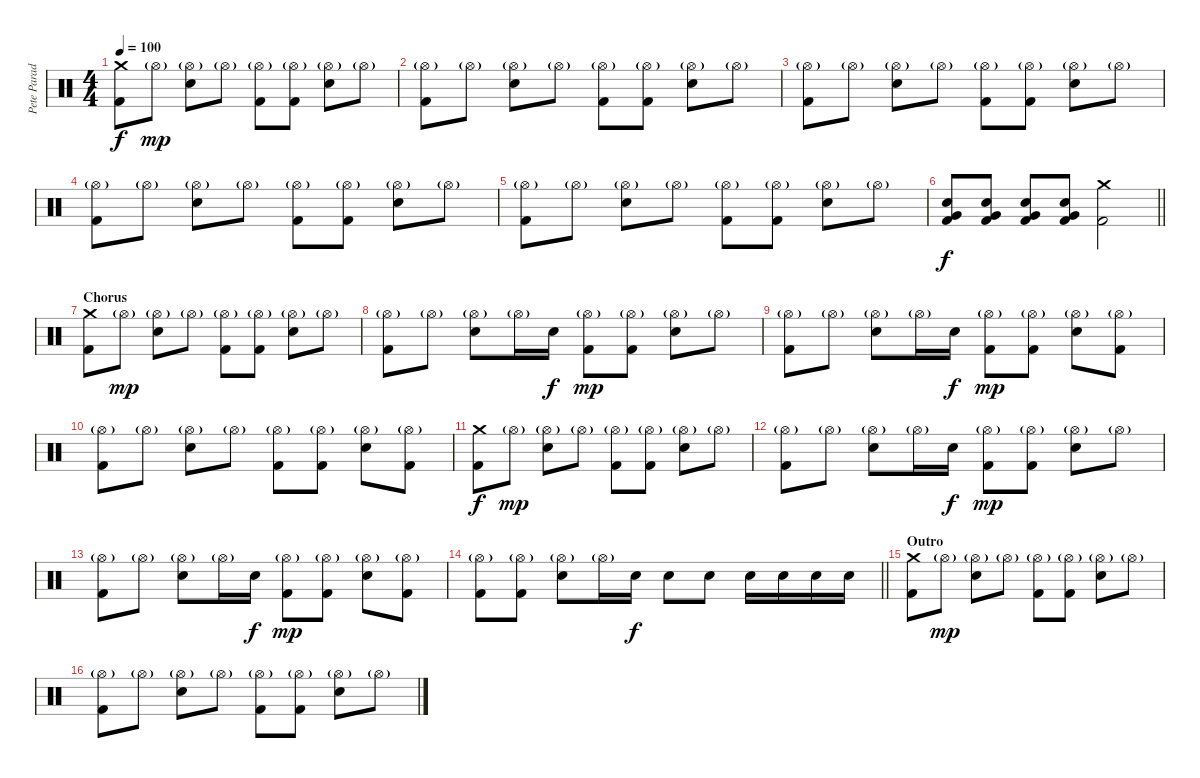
\track ("Pete Parada - Drums" "Pete Parad") {instrument percussion}
\staff {score}
\articulation defaults
\ts (4 4)
\tempo 100
\clef neutral
\ks c
("Crash medium (hit)" "Kick (hit) 2").8{dy f} "Hi-Hat (open)"{g}.8{dy mp} ("Hi-Hat (open)"{g} "Electric Snare (hit)").8 "Hi-Hat (open)"{g}.8 ("Hi-Hat (open)"{g} "Kick (hit) 2").8 ("Hi-Hat (open)"{g} "Kick (hit) 2").8 ("Hi-Hat (open)"{g} "Electric Snare (hit)").8 "Hi-Hat (open)"{g}.8 |
("Hi-Hat (open)"{g} "Kick (hit) 2").8 "Hi-Hat (open)"{g}.8 ("Hi-Hat (open)"{g} "Electric Snare (hit)").8 "Hi-Hat (open)"{g}.8 ("Hi-Hat (open)"{g} "Kick (hit) 2").8 ("Hi-Hat (open)"{g} "Kick (hit) 2").8 ("Hi-Hat (open)"{g} "Electric Snare (hit)").8 "Hi-Hat (open)"{g}.8 |
("Hi-Hat (open)"{g} "Kick (hit) 2").8 "Hi-Hat (open)"{g}.8 ("Hi-Hat (open)"{g} "Electric Snare (hit)").8 "Hi-Hat (open)"{g}.8 ("Hi-Hat (open)"{g} "Kick (hit) 2").8 ("Hi-Hat (open)"{g} "Kick (hit) 2").8 ("Hi-Hat (open)"{g} "Electric Snare (hit)").8 "Hi-Hat (open)"{g}.8 |
("Hi-Hat (open)"{g} "Kick (hit) 2").8 "Hi-Hat (open)"{g}.8 ("Hi-Hat (open)"{g} "Electric Snare (hit)").8 "Hi-Hat (open)"{g}.8 ("Hi-Hat (open)"{g} "Kick (hit) 2").8 ("Hi-Hat (open)"{g} "Kick (hit) 2").8 ("Hi-Hat (open)"{g} "Electric Snare (hit)").8 "Hi-Hat (open)"{g}.8 |
("Hi-Hat (open)"{g} "Kick (hit) 2").8 "Hi-Hat (open)"{g}.8 ("Hi-Hat (open)"{g} "Electric Snare (hit)").8 "Hi-Hat (open)"{g}.8 ("Hi-Hat (open)"{g} "Kick (hit) 2").8 ("Hi-Hat (open)"{g} "Kick (hit) 2").8 ("Hi-Hat (open)"{g} "Electric Snare (hit)").8 "Hi-Hat (open)"{g}.8 |
\barLineRight lightlight
("Very Low Tom (hit)" "Electric Snare (hit)" "Kick (hit) 2").8{dy f} ("Very Low Tom (hit)" "Electric Snare (hit)" "Kick (hit) 2").8 ("Very Low Tom (hit)" "Electric Snare (hit)" "Kick (hit) 2").8 ("Very Low Tom (hit)" "Electric Snare (hit)" "Kick (hit) 2").8 ("Crash medium (hit)" "Kick (hit) 2").2 |
\section ("" "Chorus")
("Crash medium (hit)" "Kick (hit) 2").8 "Hi-Hat (open)"{g}.8{dy mp} ("Hi-Hat (open)"{g} "Electric Snare (hit)").8 "Hi-Hat (open)"{g}.8 ("Hi-Hat (open)"{g} "Kick (hit) 2").8 ("Hi-Hat (open)"{g} "Kick (hit) 2").8 ("Hi-Hat (open)"{g} "Electric Snare (hit)").8 "Hi-Hat (open)"{g}.8 |
("Hi-Hat (open)"{g} "Kick (hit) 2").8 "Hi-Hat (open)"{g}.8 ("Hi-Hat (open)"{g} "Electric Snare (hit)").8 "Hi-Hat (open)"{g}.16 "Electric Snare (hit)".16{dy f} ("Hi-Hat (open)"{g} "Kick (hit) 2").8{dy mp} ("Hi-Hat (open)"{g} "Kick (hit) 2").8 ("Hi-Hat (open)"{g} "Electric Snare (hit)").8 "Hi-Hat (open)"{g}.8 |
("Hi-Hat (open)"{g} "Kick (hit) 2").8 "Hi-Hat (open)"{g}.8 ("Hi-Hat (open)"{g} "Electric Snare (hit)").8 "Hi-Hat (open)"{g}.16 "Electric Snare (hit)".16{dy f} ("Hi-Hat (open)"{g} "Kick (hit) 2").8{dy mp} ("Hi-Hat (open)"{g} "Kick (hit) 2").8 ("Hi-Hat (open)"{g} "Electric Snare (hit)").8 ("Hi-Hat (open)"{g} "Kick (hit) 2").8 |
("Hi-Hat (open)"{g} "Kick (hit) 2").8 "Hi-Hat (open)"{g}.8 ("Hi-Hat (open)"{g} "Electric Snare (hit)").8 "Hi-Hat (open)"{g}.8 ("Hi-Hat (open)"{g} "Kick (hit) 2").8 ("Hi-Hat (open)"{g} "Kick (hit) 2").8 ("Hi-Hat (open)"{g} "Electric Snare (hit)").8 ("Hi-Hat (open)"{g} "Kick (hit) 2").8 |
("Crash medium (hit)" "Kick (hit) 2").8{dy f} "Hi-Hat (open)"{g}.8{dy mp} ("Hi-Hat (open)"{g} "Electric Snare (hit)").8 "Hi-Hat (open)"{g}.8 ("Hi-Hat (open)"{g} "Kick (hit) 2").8 ("Hi-Hat (open)"{g} "Kick (hit) 2").8 ("Hi-Hat (open)"{g} "Electric Snare (hit)").8 "Hi-Hat (open)"{g}.8 |
("Hi-Hat (open)"{g} "Kick (hit) 2").8 "Hi-Hat (open)"{g}.8 ("Hi-Hat (open)"{g} "Electric Snare (hit)").8 "Hi-Hat (open)"{g}.16 "Electric Snare (hit)".16{dy f} ("Hi-Hat (open)"{g} "Kick (hit) 2").8{dy mp} ("Hi-Hat (open)"{g} "Kick (hit) 2").8 ("Hi-Hat (open)"{g} "Electric Snare (hit)").8 "Hi-Hat (open)"{g}.8 |
("Hi-Hat (open)"{g} "Kick (hit) 2").8 "Hi-Hat (open)"{g}.8 ("Hi-Hat (open)"{g} "Electric Snare (hit)").8 "Hi-Hat (open)"{g}.16 "Electric Snare (hit)".16{dy f} ("Hi-Hat (open)"{g} "Kick (hit) 2").8{dy mp} ("Hi-Hat (open)"{g} "Kick (hit) 2").8 ("Hi-Hat (open)"{g} "Electric Snare (hit)").8 ("Hi-Hat (open)"{g} "Kick (hit) 2").8 |
\barLineRight lightlight
("Hi-Hat (open)"{g} "Kick (hit) 2").8 ("Hi-Hat (open)"{g} "Kick (hit) 2").8 ("Hi-Hat (open)"{g} "Electric Snare (hit)").8 "Hi-Hat (open)"{g}.16 "Electric Snare (hit)".16{dy f} "Electric Snare (hit)".8 "Electric Snare (hit)".8 "Electric Snare (hit)".16 "Electric Snare (hit)".16 "Electric Snare (hit)".16 "Electric Snare (hit)".16 |
\section ("" "Outro")
("Crash medium (hit)" "Kick (hit) 2").8 "Hi-Hat (open)"{g}.8{dy mp} ("Hi-Hat (open)"{g} "Electric Snare (hit)").8 "Hi-Hat (open)"{g}.8 ("Hi-Hat (open)"{g} "Kick (hit) 2").8 ("Hi-Hat (open)"{g} "Kick (hit) 2").8 ("Hi-Hat (open)"{g} "Electric Snare (hit)").8 "Hi-Hat (open)"{g}.8 |
("Hi-Hat (open)"{g} "Kick (hit) 2").8 "Hi-Hat (open)"{g}.8 ("Hi-Hat (open)"{g} "Electric Snare (hit)").8 "Hi-Hat (open)"{g}.8 ("Hi-Hat (open)"{g} "Kick (hit) 2").8 ("Hi-Hat (open)"{g} "Kick (hit) 2").8 ("Hi-Hat (open)"{g} "Electric Snare (hit)").8 "Hi-Hat (open)"{g}.8
